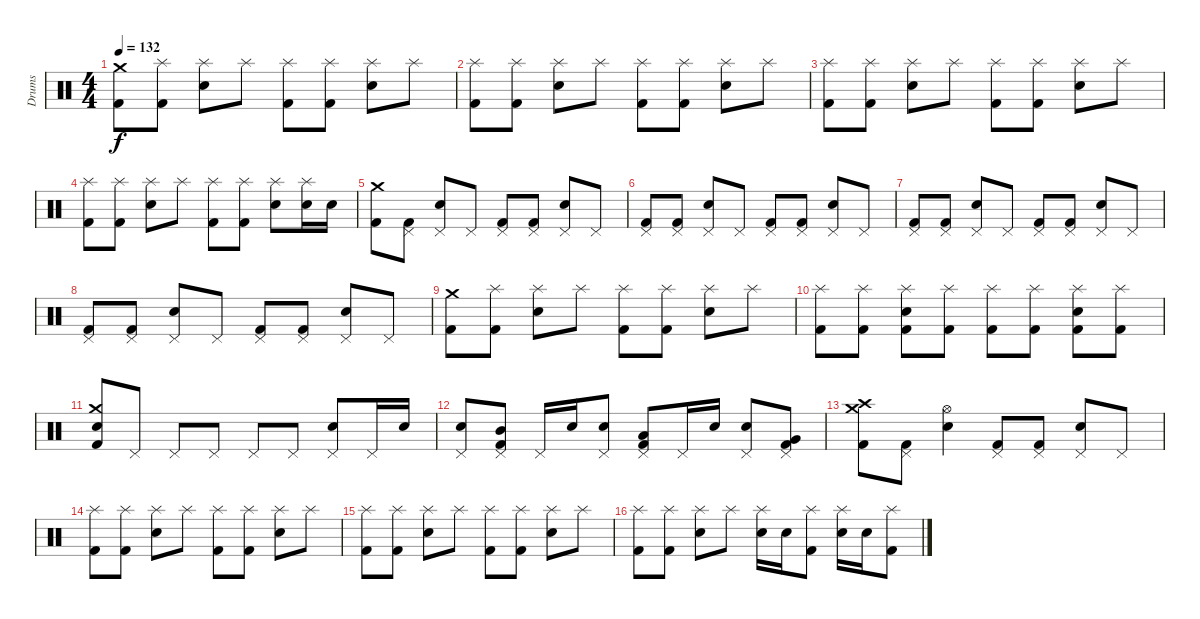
\track ("Drums" "Drums") {instrument percussion}
\staff {score}
\articulation defaults
\ts (4 4)
\tempo 132
\clef neutral
\ks c
("Kick (hit) 2" "Crash medium (hit)").8{dy f} ("Kick (hit) 2" "Splash (hit)").8 ("Snare (hit) 2" "Splash (hit)").8 "Splash (hit)".8 ("Kick (hit) 2" "Splash (hit)").8 ("Kick (hit) 2" "Splash (hit)").8 ("Snare (hit) 2" "Splash (hit)").8 "Splash (hit)".8 |
("Kick (hit) 2" "Splash (hit)").8 ("Kick (hit) 2" "Splash (hit)").8 ("Snare (hit) 2" "Splash (hit)").8 "Splash (hit)".8 ("Kick (hit) 2" "Splash (hit)").8 ("Kick (hit) 2" "Splash (hit)").8 ("Snare (hit) 2" "Splash (hit)").8 "Splash (hit)".8 |
("Kick (hit) 2" "Splash (hit)").8 ("Kick (hit) 2" "Splash (hit)").8 ("Snare (hit) 2" "Splash (hit)").8 "Splash (hit)".8 ("Kick (hit) 2" "Splash (hit)").8 ("Kick (hit) 2" "Splash (hit)").8 ("Snare (hit) 2" "Splash (hit)").8 "Splash (hit)".8 |
("Kick (hit) 2" "Splash (hit)").8 ("Kick (hit) 2" "Splash (hit)").8 ("Snare (hit) 2" "Splash (hit)").8 "Splash (hit)".8 ("Kick (hit) 2" "Splash (hit)").8 ("Kick (hit) 2" "Splash (hit)").8 ("Snare (hit) 2" "Splash (hit)").8 ("Splash (hit)" "Snare (hit) 2").16 "Snare (hit) 2".16 |
("Kick (hit) 2" "Crash medium (hit)").8 ("Pedal Hi-Hat (hit)" "Kick (hit) 2").8 ("Pedal Hi-Hat (hit)" "Snare (hit) 2").8 "Pedal Hi-Hat (hit)".8 ("Pedal Hi-Hat (hit)" "Kick (hit) 2").8 ("Pedal Hi-Hat (hit)" "Kick (hit) 2").8 ("Pedal Hi-Hat (hit)" "Snare (hit) 2").8 "Pedal Hi-Hat (hit)".8 |
("Pedal Hi-Hat (hit)" "Kick (hit) 2").8 ("Pedal Hi-Hat (hit)" "Kick (hit) 2").8 ("Pedal Hi-Hat (hit)" "Snare (hit) 2").8 "Pedal Hi-Hat (hit)".8 ("Pedal Hi-Hat (hit)" "Kick (hit) 2").8 ("Pedal Hi-Hat (hit)" "Kick (hit) 2").8 ("Pedal Hi-Hat (hit)" "Snare (hit) 2").8 "Pedal Hi-Hat (hit)".8 |
("Pedal Hi-Hat (hit)" "Kick (hit) 2").8 ("Pedal Hi-Hat (hit)" "Kick (hit) 2").8 ("Pedal Hi-Hat (hit)" "Snare (hit) 2").8 "Pedal Hi-Hat (hit)".8 ("Pedal Hi-Hat (hit)" "Kick (hit) 2").8 ("Pedal Hi-Hat (hit)" "Kick (hit) 2").8 ("Pedal Hi-Hat (hit)" "Snare (hit) 2").8 "Pedal Hi-Hat (hit)".8 |
("Pedal Hi-Hat (hit)" "Kick (hit) 2").8 ("Pedal Hi-Hat (hit)" "Kick (hit) 2").8 ("Pedal Hi-Hat (hit)" "Snare (hit) 2").8 "Pedal Hi-Hat (hit)".8 ("Pedal Hi-Hat (hit)" "Kick (hit) 2").8 ("Pedal Hi-Hat (hit)" "Kick (hit) 2").8 ("Pedal Hi-Hat (hit)" "Snare (hit) 2").8 "Pedal Hi-Hat (hit)".8 |
("Crash medium (hit)" "Kick (hit) 2").8 ("Splash (hit)" "Kick (hit) 2").8 ("Splash (hit)" "Snare (hit) 2").8 "Splash (hit)".8 ("Splash (hit)" "Kick (hit) 2").8 ("Splash (hit)" "Kick (hit) 2").8 ("Splash (hit)" "Snare (hit) 2").8 "Splash (hit)".8 |
("Splash (hit)" "Kick (hit) 2").8 ("Splash (hit)" "Kick (hit) 2").8 ("Splash (hit)" "Snare (hit) 2" "Kick (hit) 2").8 ("Splash (hit)" "Kick (hit) 2").8 ("Splash (hit)" "Kick (hit) 2").8 ("Splash (hit)" "Kick (hit) 2").8 ("Splash (hit)" "Snare (hit) 2" "Kick (hit) 2").8 ("Splash (hit)" "Kick (hit) 2").8 |
("Crash medium (hit)" "Kick (hit) 2" "Snare (hit) 2").8 "Pedal Hi-Hat (hit)".8 "Pedal Hi-Hat (hit)".8 "Pedal Hi-Hat (hit)".8 "Pedal Hi-Hat (hit)".8 "Pedal Hi-Hat (hit)".8 ("Snare (hit) 2" "Pedal Hi-Hat (hit)").8 "Pedal Hi-Hat (hit)".16 "Snare (hit) 2".16 |
("Pedal Hi-Hat (hit)" "Snare (hit) 2").8 ("Pedal Hi-Hat (hit)" "Mid Tom (hit)" "Kick (hit) 2").8 "Pedal Hi-Hat (hit)".16 "Snare (hit) 2".16 ("Pedal Hi-Hat (hit)" "Snare (hit) 2").8 ("Pedal Hi-Hat (hit)" "Low Tom (hit)" "Kick (hit) 2").8 "Pedal Hi-Hat (hit)".16 "Snare (hit) 2".16 ("Pedal Hi-Hat (hit)" "Snare (hit) 2").8 ("Pedal Hi-Hat (hit)" "Very Low Tom (hit)" "Kick (hit) 2").8 |
("Crash high (hit)" "Crash medium (hit)" "Kick (hit) 2").8 ("Pedal Hi-Hat (hit)" "Kick (hit) 2").8 ("Hi-Hat (open)" "Snare (hit) 2").4 ("Pedal Hi-Hat (hit)" "Kick (hit) 2").8 ("Pedal Hi-Hat (hit)" "Kick (hit) 2").8 ("Pedal Hi-Hat (hit)" "Snare (hit) 2").8 "Pedal Hi-Hat (hit)".8 |
("Splash (hit)" "Kick (hit) 2").8 ("Splash (hit)" "Kick (hit) 2").8 ("Splash (hit)" "Snare (hit) 2").8 "Splash (hit)".8 ("Splash (hit)" "Kick (hit) 2").8 ("Splash (hit)" "Kick (hit) 2").8 ("Splash (hit)" "Snare (hit) 2").8 "Splash (hit)".8 |
("Kick (hit) 2" "Splash (hit)").8 ("Kick (hit) 2" "Splash (hit)").8 ("Snare (hit) 2" "Splash (hit)").8 "Splash (hit)".8 ("Kick (hit) 2" "Splash (hit)").8 ("Kick (hit) 2" "Splash (hit)").8 ("Snare (hit) 2" "Splash (hit)").8 "Splash (hit)".8 |
("Splash (hit)" "Kick (hit) 2").8 ("Splash (hit)" "Kick (hit) 2").8 ("Splash (hit)" "Snare (hit) 2").8 "Splash (hit)".8 ("Splash (hit)" "Snare (hit) 2").16 "Snare (hit) 2".16 ("Splash (hit)" "Kick (hit) 2").8 ("Splash (hit)" "Snare (hit) 2").16 "Snare (hit) 2".16 ("Splash (hit)" "Kick (hit) 2").8
